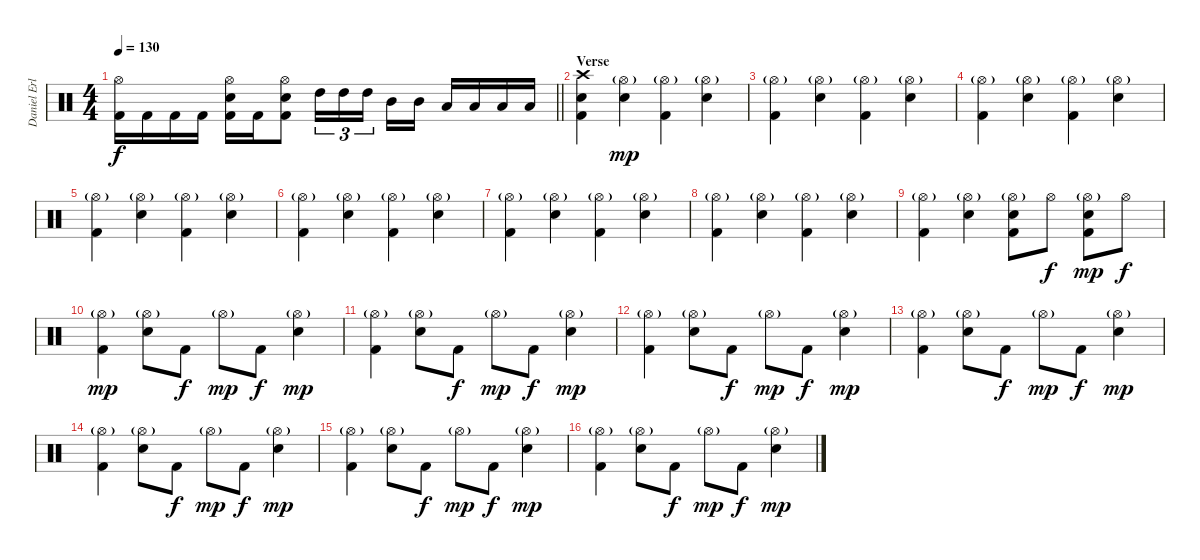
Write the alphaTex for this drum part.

\track ("Daniel Erlandsson" "Daniel Erl") {instrument percussion}
\staff {score}
\articulation defaults
\ts (4 4)
\tempo 130
\clef neutral
\barLineRight lightlight
\ks c
("Hi-Hat (open)" "Kick (hit) 2").16{dy f} "Kick (hit) 2".16 "Kick (hit) 2".16 "Kick (hit) 2".16 ("Hi-Hat (open)" "Snare (hit) 2" "Kick (hit) 2").16 "Kick (hit) 2".16 ("Hi-Hat (open)" "Snare (hit) 2" "Kick (hit) 2").8 "High Tom (hit)".16{tu (3 2)} "High Tom (hit)".16{tu (3 2)} "High Tom (hit)".16{tu (3 2) beam splitsecondary} "Mid Tom (hit)".16 "Mid Tom (hit)".16 "Low Tom (hit)".16 "Low Tom (hit)".16 "Low Floor Tom (hit)".16 "Low Floor Tom (hit)".16 |
\section ("" "Verse")
("Crash high (hit)" "Snare (hit) 2" "Kick (hit) 2").4 ("Hi-Hat (open)"{g} "Snare (hit) 2").4{dy mp} ("Hi-Hat (open)"{g} "Kick (hit) 2").4 ("Hi-Hat (open)"{g} "Snare (hit) 2").4 |
("Hi-Hat (open)"{g} "Kick (hit) 2").4 ("Hi-Hat (open)"{g} "Snare (hit) 2").4 ("Hi-Hat (open)"{g} "Kick (hit) 2").4 ("Hi-Hat (open)"{g} "Snare (hit) 2").4 |
("Hi-Hat (open)"{g} "Kick (hit) 2").4 ("Hi-Hat (open)"{g} "Snare (hit) 2").4 ("Hi-Hat (open)"{g} "Kick (hit) 2").4 ("Hi-Hat (open)"{g} "Snare (hit) 2").4 |
("Hi-Hat (open)"{g} "Kick (hit) 2").4 ("Hi-Hat (open)"{g} "Snare (hit) 2").4 ("Hi-Hat (open)"{g} "Kick (hit) 2").4 ("Hi-Hat (open)"{g} "Snare (hit) 2").4 |
("Hi-Hat (open)"{g} "Kick (hit) 2").4 ("Hi-Hat (open)"{g} "Snare (hit) 2").4 ("Hi-Hat (open)"{g} "Kick (hit) 2").4 ("Hi-Hat (open)"{g} "Snare (hit) 2").4 |
("Hi-Hat (open)"{g} "Kick (hit) 2").4 ("Hi-Hat (open)"{g} "Snare (hit) 2").4 ("Hi-Hat (open)"{g} "Kick (hit) 2").4 ("Hi-Hat (open)"{g} "Snare (hit) 2").4 |
("Hi-Hat (open)"{g} "Kick (hit) 2").4 ("Hi-Hat (open)"{g} "Snare (hit) 2").4 ("Hi-Hat (open)"{g} "Kick (hit) 2").4 ("Hi-Hat (open)"{g} "Snare (hit) 2").4 |
("Hi-Hat (open)"{g} "Kick (hit) 2").4 ("Hi-Hat (open)"{g} "Snare (hit) 2").4 ("Hi-Hat (open)"{g} "Snare (hit) 2" "Kick (hit) 2").8 "Hi-Hat (open)".8{dy f} ("Hi-Hat (open)"{g} "Snare (hit) 2" "Kick (hit) 2").8{dy mp} "Hi-Hat (open)".8{dy f} |
("Hi-Hat (open)"{g} "Kick (hit) 2").4{dy mp} ("Hi-Hat (open)"{g} "Snare (hit) 2").8 "Kick (hit) 2".8{dy f} "Hi-Hat (open)"{g}.8{dy mp} "Kick (hit) 2".8{dy f} ("Hi-Hat (open)"{g} "Snare (hit) 2").4{dy mp} |
("Hi-Hat (open)"{g} "Kick (hit) 2").4 ("Hi-Hat (open)"{g} "Snare (hit) 2").8 "Kick (hit) 2".8{dy f} "Hi-Hat (open)"{g}.8{dy mp} "Kick (hit) 2".8{dy f} ("Hi-Hat (open)"{g} "Snare (hit) 2").4{dy mp} |
("Hi-Hat (open)"{g} "Kick (hit) 2").4 ("Hi-Hat (open)"{g} "Snare (hit) 2").8 "Kick (hit) 2".8{dy f} "Hi-Hat (open)"{g}.8{dy mp} "Kick (hit) 2".8{dy f} ("Hi-Hat (open)"{g} "Snare (hit) 2").4{dy mp} |
("Hi-Hat (open)"{g} "Kick (hit) 2").4 ("Hi-Hat (open)"{g} "Snare (hit) 2").8 "Kick (hit) 2".8{dy f} "Hi-Hat (open)"{g}.8{dy mp} "Kick (hit) 2".8{dy f} ("Hi-Hat (open)"{g} "Snare (hit) 2").4{dy mp} |
("Hi-Hat (open)"{g} "Kick (hit) 2").4 ("Hi-Hat (open)"{g} "Snare (hit) 2").8 "Kick (hit) 2".8{dy f} "Hi-Hat (open)"{g}.8{dy mp} "Kick (hit) 2".8{dy f} ("Hi-Hat (open)"{g} "Snare (hit) 2").4{dy mp} |
("Hi-Hat (open)"{g} "Kick (hit) 2").4 ("Hi-Hat (open)"{g} "Snare (hit) 2").8 "Kick (hit) 2".8{dy f} "Hi-Hat (open)"{g}.8{dy mp} "Kick (hit) 2".8{dy f} ("Hi-Hat (open)"{g} "Snare (hit) 2").4{dy mp} |
("Hi-Hat (open)"{g} "Kick (hit) 2").4 ("Hi-Hat (open)"{g} "Snare (hit) 2").8 "Kick (hit) 2".8{dy f} "Hi-Hat (open)"{g}.8{dy mp} "Kick (hit) 2".8{dy f} ("Hi-Hat (open)"{g} "Snare (hit) 2").4{dy mp}
